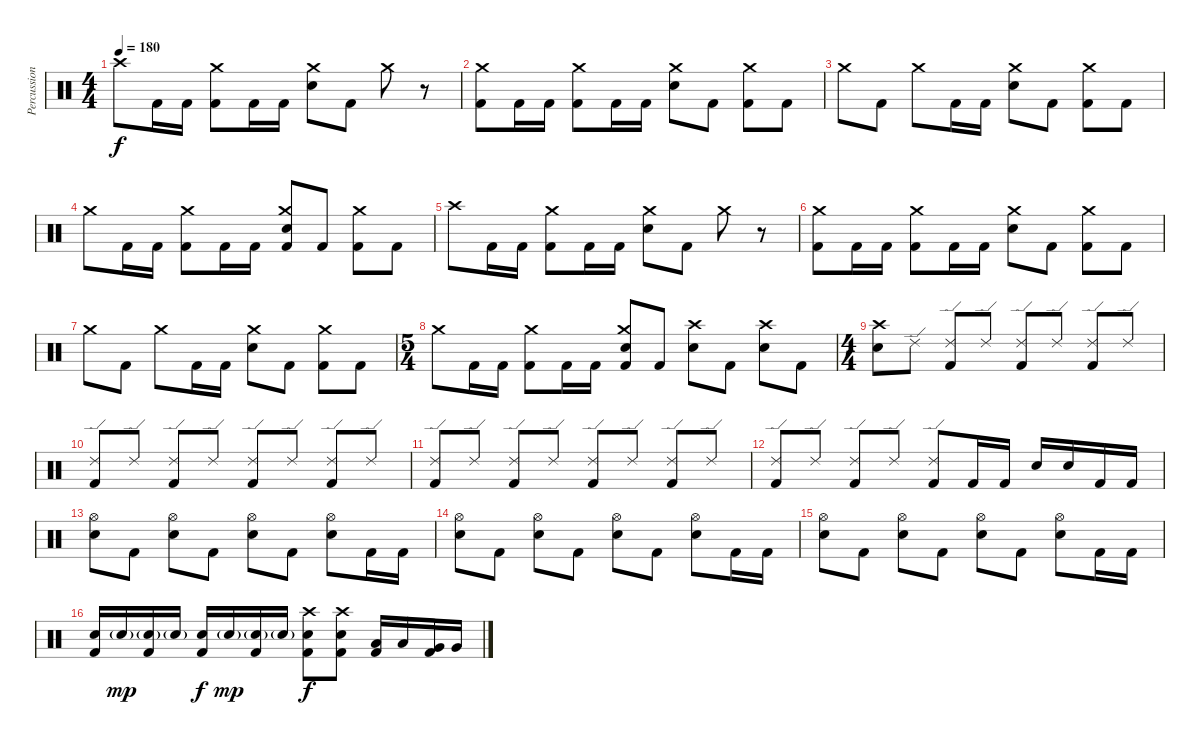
\track ("Percussion" "Percussion") {instrument percussion}
\staff {score}
\articulation defaults
\ts (4 4)
\tempo 180
\clef neutral
\ks c "Crash high (hit)".8{dy f} "Kick (hit) 2".16 "Kick (hit) 2".16
("Crash medium (hit)" "Kick (hit) 2").8 "Kick (hit) 2".16 "Kick (hit) 2".16 ("Crash medium (hit)" "Electric Snare (hit)").8 "Kick (hit) 2".8 "Crash medium (hit)".8 r.8 |
("Crash medium (hit)" "Kick (hit) 2").8 "Kick (hit) 2".16 "Kick (hit) 2".16 ("Crash medium (hit)" "Kick (hit) 2").8 "Kick (hit) 2".16 "Kick (hit) 2".16 ("Crash medium (hit)" "Electric Snare (hit)").8 "Kick (hit) 2".8 ("Crash medium (hit)" "Kick (hit) 2").8 "Kick (hit) 2".8 |
"Crash medium (hit)".8 "Kick (hit) 2".8 "Crash medium (hit)".8 "Kick (hit) 2".16 "Kick (hit) 2".16 ("Crash medium (hit)" "Electric Snare (hit)").8 "Kick (hit) 2".8 ("Crash medium (hit)" "Kick (hit) 2").8 "Kick (hit) 2".8 |
"Crash medium (hit)".8 "Kick (hit) 2".16 "Kick (hit) 2".16 ("Crash medium (hit)" "Kick (hit) 2").8 "Kick (hit) 2".16 "Kick (hit) 2".16 ("Crash medium (hit)" "Electric Snare (hit)" "Kick (hit) 2").8 "Kick (hit) 2".8 ("Crash medium (hit)" "Kick (hit) 2").8 "Kick (hit) 2".8 |
"Crash high (hit)".8 "Kick (hit) 2".16 "Kick (hit) 2".16 ("Crash medium (hit)" "Kick (hit) 2").8 "Kick (hit) 2".16 "Kick (hit) 2".16 ("Crash medium (hit)" "Electric Snare (hit)").8 "Kick (hit) 2".8 "Crash medium (hit)".8 r.8 |
("Crash medium (hit)" "Kick (hit) 2").8 "Kick (hit) 2".16 "Kick (hit) 2".16 ("Crash medium (hit)" "Kick (hit) 2").8 "Kick (hit) 2".16 "Kick (hit) 2".16 ("Crash medium (hit)" "Electric Snare (hit)").8 "Kick (hit) 2".8 ("Crash medium (hit)" "Kick (hit) 2").8 "Kick (hit) 2".8 |
"Crash medium (hit)".8 "Kick (hit) 2".8 "Crash medium (hit)".8 "Kick (hit) 2".16 "Kick (hit) 2".16 ("Crash medium (hit)" "Electric Snare (hit)").8 "Kick (hit) 2".8 ("Crash medium (hit)" "Kick (hit) 2").8 "Kick (hit) 2".8 |
\ts (5 4)
"Crash medium (hit)".8 "Kick (hit) 2".16 "Kick (hit) 2".16 ("Crash medium (hit)" "Kick (hit) 2").8 "Kick (hit) 2".16 "Kick (hit) 2".16 ("Crash medium (hit)" "Electric Snare (hit)" "Kick (hit) 2").8 "Kick (hit) 2".8 ("Crash high (hit)" "Electric Snare (hit)").8 "Kick (hit) 2".8 ("Crash high (hit)" "Electric Snare (hit)").8 "Kick (hit) 2".8 |
\ts (4 4)
("Crash high (hit)" "Electric Snare (hit)").8 "Ride (edge) 2".8 ("Ride (edge) 2" "Kick (hit) 2").8 "Ride (edge) 2".8 ("Ride (edge) 2" "Kick (hit) 2").8 "Ride (edge) 2".8 ("Ride (edge) 2" "Kick (hit) 2").8 "Ride (edge) 2".8 |
("Ride (edge) 2" "Kick (hit) 2").8 "Ride (edge) 2".8 ("Ride (edge) 2" "Kick (hit) 2").8 "Ride (edge) 2".8 ("Ride (edge) 2" "Kick (hit) 2").8 "Ride (edge) 2".8 ("Ride (edge) 2" "Kick (hit) 2").8 "Ride (edge) 2".8 |
("Ride (edge) 2" "Kick (hit) 2").8 "Ride (edge) 2".8 ("Ride (edge) 2" "Kick (hit) 2").8 "Ride (edge) 2".8 ("Ride (edge) 2" "Kick (hit) 2").8 "Ride (edge) 2".8 ("Ride (edge) 2" "Kick (hit) 2").8 "Ride (edge) 2".8 |
("Ride (edge) 2" "Kick (hit) 2").8 "Ride (edge) 2".8 ("Ride (edge) 2" "Kick (hit) 2").8 "Ride (edge) 2".8 ("Ride (edge) 2" "Kick (hit) 2").8 "Kick (hit) 2".16 "Kick (hit) 2".16 "Electric Snare (hit)".16 "Electric Snare (hit)".16 "Kick (hit) 2".16 "Kick (hit) 2".16 |
("Hi-Hat (open)" "Electric Snare (hit)").8 "Kick (hit) 2".8 ("Hi-Hat (open)" "Electric Snare (hit)").8 "Kick (hit) 2".8 ("Hi-Hat (open)" "Electric Snare (hit)").8 "Kick (hit) 2".8 ("Hi-Hat (open)" "Electric Snare (hit)").8 "Kick (hit) 2".16 "Kick (hit) 2".16 |
("Hi-Hat (open)" "Electric Snare (hit)").8 "Kick (hit) 2".8 ("Hi-Hat (open)" "Electric Snare (hit)").8 "Kick (hit) 2".8 ("Hi-Hat (open)" "Electric Snare (hit)").8 "Kick (hit) 2".8 ("Hi-Hat (open)" "Electric Snare (hit)").8 "Kick (hit) 2".16 "Kick (hit) 2".16 |
("Hi-Hat (open)" "Electric Snare (hit)").8 "Kick (hit) 2".8 ("Hi-Hat (open)" "Electric Snare (hit)").8 "Kick (hit) 2".8 ("Hi-Hat (open)" "Electric Snare (hit)").8 "Kick (hit) 2".8 ("Hi-Hat (open)" "Electric Snare (hit)").8 "Kick (hit) 2".16 "Kick (hit) 2".16 |
("Electric Snare (hit)" "Kick (hit) 2").16 "Electric Snare (hit)"{g}.16{dy mp} ("Electric Snare (hit)"{g} "Kick (hit) 2").16 "Electric Snare (hit)"{g}.16 ("Electric Snare (hit)" "Kick (hit) 2").16{dy f} "Electric Snare (hit)"{g}.16{dy mp} ("Electric Snare (hit)"{g} "Kick (hit) 2").16 "Electric Snare (hit)"{g}.16 ("Crash high (hit)" "Electric Snare (hit)" "Kick (hit) 2").8{dy f} ("Crash high (hit)" "Electric Snare (hit)" "Kick (hit) 2").8 ("Low Tom (hit)" "Kick (hit) 2").16 "Low Tom (hit)".16 ("Very Low Tom (hit)" "Kick (hit) 2").16 "Very Low Tom (hit)".16
